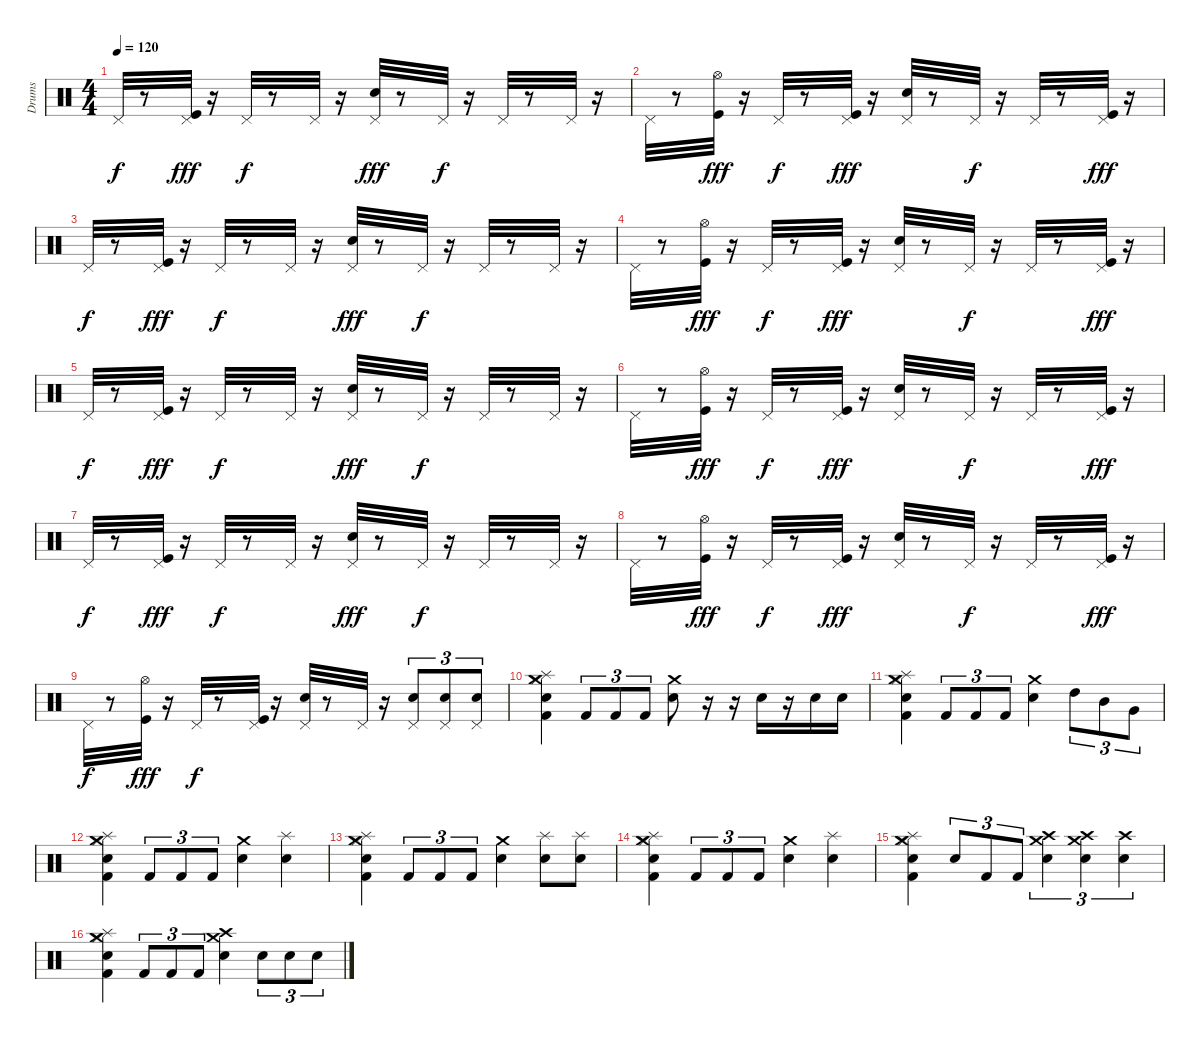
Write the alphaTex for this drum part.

\track ("Drums" "Drums") {instrument percussion}
\staff {score}
\articulation defaults
\ts (4 4)
\tempo 120
\clef neutral
\ks c "Pedal Hi-Hat (hit)".32{dy f}
r.8 ("Kick (hit)" "Pedal Hi-Hat (hit)").32{dy fff} r.16 "Pedal Hi-Hat (hit)".32{dy f} r.8 "Pedal Hi-Hat (hit)".32 r.16 ("Pedal Hi-Hat (hit)" "Electric Snare (hit)").32{dy fff} r.8 "Pedal Hi-Hat (hit)".32{dy f} r.16 "Pedal Hi-Hat (hit)".32 r.8 "Pedal Hi-Hat (hit)".32 r.16 |
"Pedal Hi-Hat (hit)".32 r.8 ("Kick (hit)" "Hi-Hat (open)").32{dy fff} r.16 "Pedal Hi-Hat (hit)".32{dy f} r.8 ("Kick (hit)" "Pedal Hi-Hat (hit)").32{dy fff} r.16 ("Electric Snare (hit)" "Pedal Hi-Hat (hit)").32 r.8 "Pedal Hi-Hat (hit)".32{dy f} r.16 "Pedal Hi-Hat (hit)".32 r.8 ("Kick (hit)" "Pedal Hi-Hat (hit)").32{dy fff} r.16 |
"Pedal Hi-Hat (hit)".32{dy f} r.8 ("Kick (hit)" "Pedal Hi-Hat (hit)").32{dy fff} r.16 "Pedal Hi-Hat (hit)".32{dy f} r.8 "Pedal Hi-Hat (hit)".32 r.16 ("Pedal Hi-Hat (hit)" "Electric Snare (hit)").32{dy fff} r.8 "Pedal Hi-Hat (hit)".32{dy f} r.16 "Pedal Hi-Hat (hit)".32 r.8 "Pedal Hi-Hat (hit)".32 r.16 |
"Pedal Hi-Hat (hit)".32 r.8 ("Kick (hit)" "Hi-Hat (open)").32{dy fff} r.16 "Pedal Hi-Hat (hit)".32{dy f} r.8 ("Kick (hit)" "Pedal Hi-Hat (hit)").32{dy fff} r.16 ("Electric Snare (hit)" "Pedal Hi-Hat (hit)").32 r.8 "Pedal Hi-Hat (hit)".32{dy f} r.16 "Pedal Hi-Hat (hit)".32 r.8 ("Kick (hit)" "Pedal Hi-Hat (hit)").32{dy fff} r.16 |
"Pedal Hi-Hat (hit)".32{dy f} r.8 ("Kick (hit)" "Pedal Hi-Hat (hit)").32{dy fff} r.16 "Pedal Hi-Hat (hit)".32{dy f} r.8 "Pedal Hi-Hat (hit)".32 r.16 ("Pedal Hi-Hat (hit)" "Electric Snare (hit)").32{dy fff} r.8 "Pedal Hi-Hat (hit)".32{dy f} r.16 "Pedal Hi-Hat (hit)".32 r.8 "Pedal Hi-Hat (hit)".32 r.16 |
"Pedal Hi-Hat (hit)".32 r.8 ("Kick (hit)" "Hi-Hat (open)").32{dy fff} r.16 "Pedal Hi-Hat (hit)".32{dy f} r.8 ("Kick (hit)" "Pedal Hi-Hat (hit)").32{dy fff} r.16 ("Electric Snare (hit)" "Pedal Hi-Hat (hit)").32 r.8 "Pedal Hi-Hat (hit)".32{dy f} r.16 "Pedal Hi-Hat (hit)".32 r.8 ("Kick (hit)" "Pedal Hi-Hat (hit)").32{dy fff} r.16 |
"Pedal Hi-Hat (hit)".32{dy f} r.8 ("Kick (hit)" "Pedal Hi-Hat (hit)").32{dy fff} r.16 "Pedal Hi-Hat (hit)".32{dy f} r.8 "Pedal Hi-Hat (hit)".32 r.16 ("Pedal Hi-Hat (hit)" "Electric Snare (hit)").32{dy fff} r.8 "Pedal Hi-Hat (hit)".32{dy f} r.16 "Pedal Hi-Hat (hit)".32 r.8 "Pedal Hi-Hat (hit)".32 r.16 |
"Pedal Hi-Hat (hit)".32 r.8 ("Kick (hit)" "Hi-Hat (open)").32{dy fff} r.16 "Pedal Hi-Hat (hit)".32{dy f} r.8 ("Kick (hit)" "Pedal Hi-Hat (hit)").32{dy fff} r.16 ("Electric Snare (hit)" "Pedal Hi-Hat (hit)").32 r.8 "Pedal Hi-Hat (hit)".32{dy f} r.16 "Pedal Hi-Hat (hit)".32 r.8 ("Kick (hit)" "Pedal Hi-Hat (hit)").32{dy fff} r.16 |
"Pedal Hi-Hat (hit)".32{dy f} r.8 ("Kick (hit)" "Hi-Hat (open)").32{dy fff} r.16 "Pedal Hi-Hat (hit)".32{dy f} r.8 ("Kick (hit)" "Pedal Hi-Hat (hit)").32 r.16 ("Electric Snare (hit)" "Pedal Hi-Hat (hit)").32 r.8 "Pedal Hi-Hat (hit)".32 r.16 ("Snare (hit) 2" "Pedal Hi-Hat (hit)").8{tu (3 2)} ("Snare (hit) 2" "Pedal Hi-Hat (hit)").8{tu (3 2)} ("Snare (hit) 2" "Pedal Hi-Hat (hit)").8{tu (3 2)} |
("Hi-Hat (closed)" "Snare (hit) 2" "Kick (hit) 2" "Splash (hit)" "Crash medium (hit)").4 "Kick (hit) 2".8{tu (3 2)} "Kick (hit) 2".8{tu (3 2)} "Kick (hit) 2".8{tu (3 2)} ("Snare (hit) 2" "Crash medium (hit)").8 r.16 r.16 "Snare (hit) 2".16 r.16 "Snare (hit) 2".16 "Snare (hit) 2".16 |
("Hi-Hat (closed)" "Snare (hit) 2" "Kick (hit) 2" "Splash (hit)" "Crash medium (hit)").4 "Kick (hit) 2".8{tu (3 2)} "Kick (hit) 2".8{tu (3 2)} "Kick (hit) 2".8{tu (3 2)} ("Snare (hit) 2" "Crash medium (hit)").4 "High Tom (hit)".8{tu (3 2)} "Mid Tom (hit)".8{tu (3 2)} "Very Low Tom (hit)".8{tu (3 2)} |
("Hi-Hat (closed)" "Snare (hit) 2" "Kick (hit) 2" "Splash (hit)" "Crash medium (hit)").4 "Kick (hit) 2".8{tu (3 2)} "Kick (hit) 2".8{tu (3 2)} "Kick (hit) 2".8{tu (3 2)} ("Snare (hit) 2" "Crash medium (hit)").4 ("Snare (hit) 2" "Splash (hit)").4 |
("Hi-Hat (closed)" "Snare (hit) 2" "Kick (hit) 2" "Splash (hit)" "Crash medium (hit)").4 "Kick (hit) 2".8{tu (3 2)} "Kick (hit) 2".8{tu (3 2)} "Kick (hit) 2".8{tu (3 2)} ("Snare (hit) 2" "Crash medium (hit)").4 ("Snare (hit) 2" "Splash (hit)").8 ("Snare (hit) 2" "Splash (hit)").8 |
("Hi-Hat (closed)" "Snare (hit) 2" "Kick (hit) 2" "Splash (hit)" "Crash medium (hit)").4 "Kick (hit) 2".8{tu (3 2)} "Kick (hit) 2".8{tu (3 2)} "Kick (hit) 2".8{tu (3 2)} ("Snare (hit) 2" "Crash medium (hit)").4 ("Snare (hit) 2" "Splash (hit)").4 |
("Hi-Hat (closed)" "Snare (hit) 2" "Kick (hit) 2" "Splash (hit)" "Crash medium (hit)").4 "Snare (hit) 2".8{tu (3 2)} "Kick (hit) 2".8{tu (3 2)} "Kick (hit) 2".8{tu (3 2)} ("Snare (hit) 2" "Crash medium (hit)" "Crash high (hit)").4{tu (3 2)} ("Snare (hit) 2" "Crash medium (hit)" "Crash high (hit)").4{tu (3 2)} ("Snare (hit) 2" "Crash high (hit)").4{tu (3 2)} |
("Hi-Hat (closed)" "Snare (hit) 2" "Kick (hit) 2" "Splash (hit)" "Crash medium (hit)").4 "Kick (hit) 2".8{tu (3 2)} "Kick (hit) 2".8{tu (3 2)} "Kick (hit) 2".8{tu (3 2)} ("Snare (hit) 2" "Crash medium (hit)" "Crash high (hit)").4 "Snare (hit) 2".8{tu (3 2)} "Snare (hit) 2".8{tu (3 2)} "Snare (hit) 2".8{tu (3 2)}
